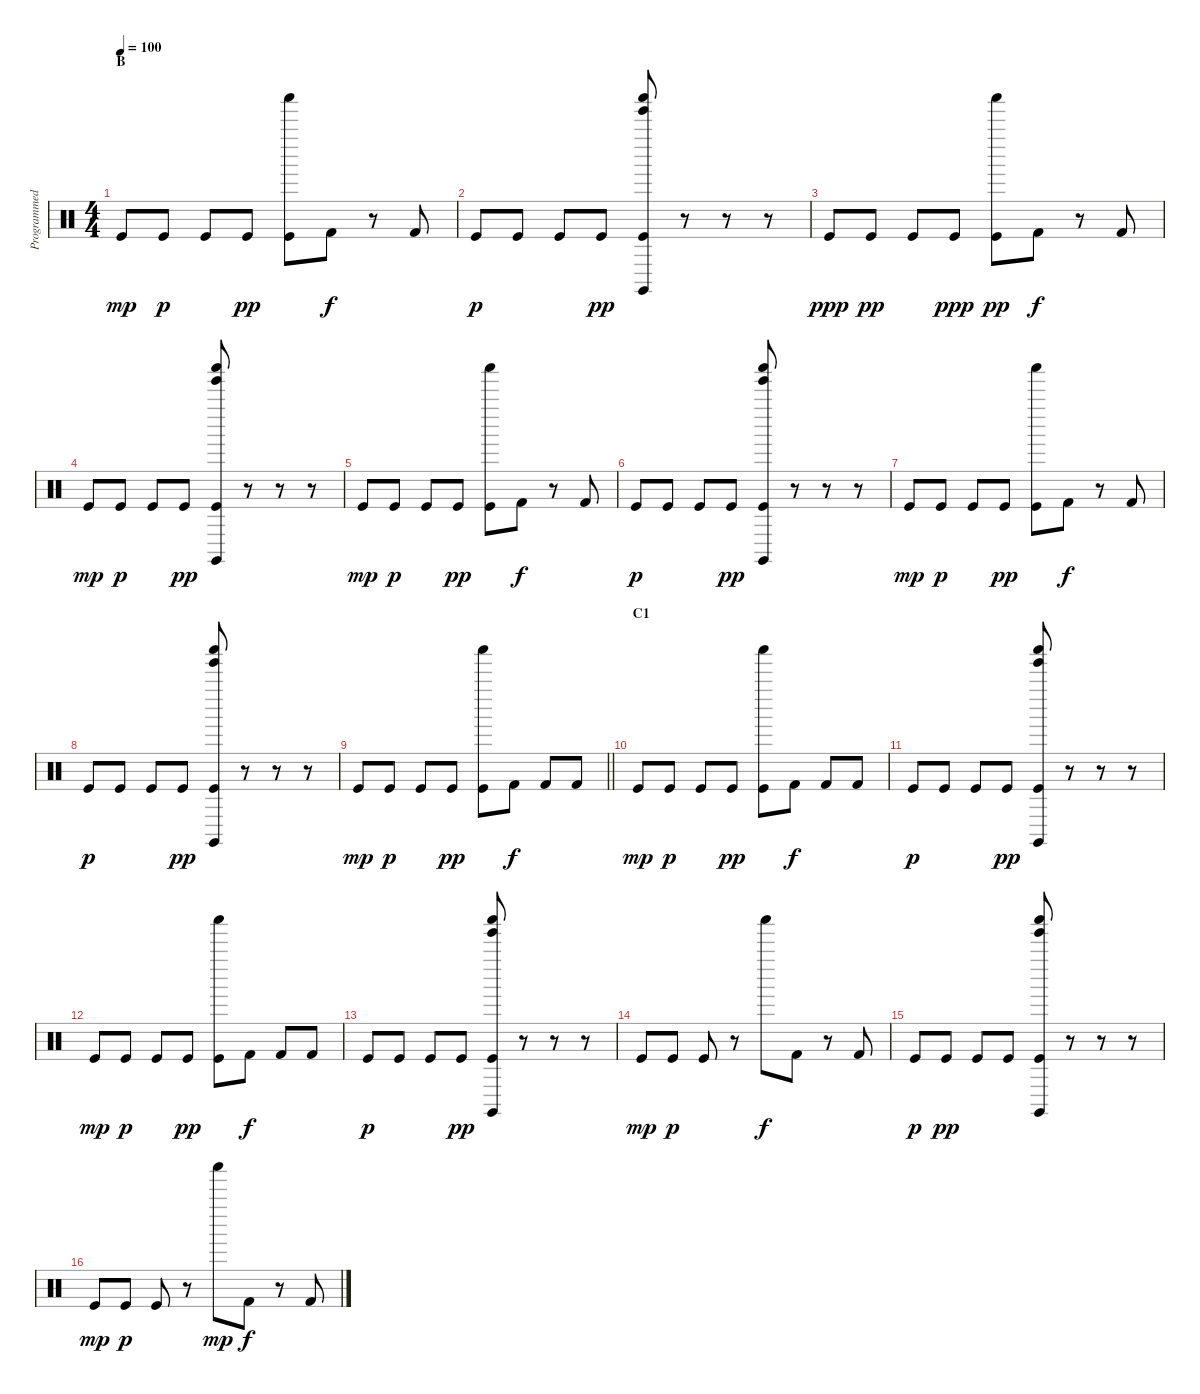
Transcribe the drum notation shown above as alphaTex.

\track ("Programmed Drums" "Programmed") {instrument percussion}
\staff {score}
\articulation defaults
\ts (4 4)
\section ("" "B")
\tempo 100
\clef neutral
\ks c "Kick (hit)".8{dy mp balance 13} "Kick (hit)".8{dy p balance 3} "Kick (hit)".8{balance 13} "Kick (hit)".8{dy pp balance 3}
("Shaker (hit)" "Kick (hit)").8{balance 5} "Kick (hit) 2".8{dy f balance 6} r.8 "Kick (hit) 2".8 |
"Kick (hit)".8{dy p balance 13} "Kick (hit)".8{balance 3} "Kick (hit)".8{balance 13} "Kick (hit)".8{dy pp balance 3} ("Shaker (hit)" "Tinkle Bell (hit)" "Claves (hit)" "Kick (hit)").8{balance 5} r.8 r.8 r.8 |
"Kick (hit)".8{dy ppp balance 13} "Kick (hit)".8{dy pp balance 3} "Kick (hit)".8{balance 13} "Kick (hit)".8{dy ppp balance 3} ("Shaker (hit)" "Kick (hit)").8{dy pp balance 5} "Kick (hit) 2".8{dy f balance 6} r.8 "Kick (hit) 2".8 |
"Kick (hit)".8{dy mp balance 13} "Kick (hit)".8{dy p balance 3} "Kick (hit)".8{balance 13} "Kick (hit)".8{dy pp balance 3} ("Shaker (hit)" "Tinkle Bell (hit)" "Claves (hit)" "Kick (hit)").8{balance 5} r.8 r.8 r.8 |
"Kick (hit)".8{dy mp balance 13} "Kick (hit)".8{dy p balance 3} "Kick (hit)".8{balance 13} "Kick (hit)".8{dy pp balance 3} ("Shaker (hit)" "Kick (hit)").8{balance 5} "Kick (hit) 2".8{dy f balance 6} r.8 "Kick (hit) 2".8 |
"Kick (hit)".8{dy p balance 13} "Kick (hit)".8{balance 3} "Kick (hit)".8{balance 13} "Kick (hit)".8{dy pp balance 3} ("Shaker (hit)" "Tinkle Bell (hit)" "Claves (hit)" "Kick (hit)").8{balance 5} r.8 r.8 r.8 |
"Kick (hit)".8{dy mp balance 13} "Kick (hit)".8{dy p balance 3} "Kick (hit)".8{balance 13} "Kick (hit)".8{dy pp balance 3} ("Shaker (hit)" "Kick (hit)").8{balance 5} "Kick (hit) 2".8{dy f balance 6} r.8 "Kick (hit) 2".8 |
"Kick (hit)".8{dy p balance 13} "Kick (hit)".8{balance 3} "Kick (hit)".8{balance 13} "Kick (hit)".8{dy pp balance 3} ("Shaker (hit)" "Tinkle Bell (hit)" "Claves (hit)" "Kick (hit)").8{balance 5} r.8 r.8 r.8 |
\barLineRight lightlight "Kick (hit)".8{dy mp balance 13} "Kick (hit)".8{dy p balance 3} "Kick (hit)".8{balance 13} "Kick (hit)".8{dy pp balance 3}
("Shaker (hit)" "Kick (hit)").8{balance 5} "Kick (hit) 2".8{dy f balance 6} "Kick (hit) 2".8 "Kick (hit) 2".8 |
\section ("" "C1")
"Kick (hit)".8{dy mp balance 13} "Kick (hit)".8{dy p balance 3} "Kick (hit)".8{balance 13} "Kick (hit)".8{dy pp balance 3} ("Shaker (hit)" "Kick (hit)").8{balance 5} "Kick (hit) 2".8{dy f balance 6} "Kick (hit) 2".8 "Kick (hit) 2".8 |
"Kick (hit)".8{dy p balance 13} "Kick (hit)".8{balance 3} "Kick (hit)".8{balance 13} "Kick (hit)".8{dy pp balance 3} ("Shaker (hit)" "Tinkle Bell (hit)" "Claves (hit)" "Kick (hit)").8{balance 5} r.8 r.8 r.8 |
"Kick (hit)".8{dy mp balance 13} "Kick (hit)".8{dy p balance 3} "Kick (hit)".8{balance 13} "Kick (hit)".8{dy pp balance 3} ("Shaker (hit)" "Kick (hit)").8{balance 5} "Kick (hit) 2".8{dy f balance 6} "Kick (hit) 2".8 "Kick (hit) 2".8 |
"Kick (hit)".8{dy p balance 13} "Kick (hit)".8{balance 3} "Kick (hit)".8{balance 13} "Kick (hit)".8{dy pp balance 3} ("Shaker (hit)" "Tinkle Bell (hit)" "Claves (hit)" "Kick (hit)").8{balance 5} r.8 r.8 r.8 |
"Kick (hit)".8{dy mp balance 13} "Kick (hit)".8{dy p balance 3} "Kick (hit)".8{balance 13} r.8{balance 3} "Shaker (hit)".8{dy f balance 5} "Kick (hit) 2".8{balance 6} r.8 "Kick (hit) 2".8 |
"Kick (hit)".8{dy p balance 13} "Kick (hit)".8{dy pp balance 3} "Kick (hit)".8{balance 13} "Kick (hit)".8{balance 3} ("Shaker (hit)" "Tinkle Bell (hit)" "Claves (hit)" "Kick (hit)").8{balance 5} r.8 r.8 r.8 |
"Kick (hit)".8{dy mp balance 13} "Kick (hit)".8{dy p balance 3} "Kick (hit)".8{balance 13} r.8{balance 3} "Shaker (hit)".8{dy mp balance 5} "Kick (hit) 2".8{dy f balance 6} r.8 "Kick (hit) 2".8
